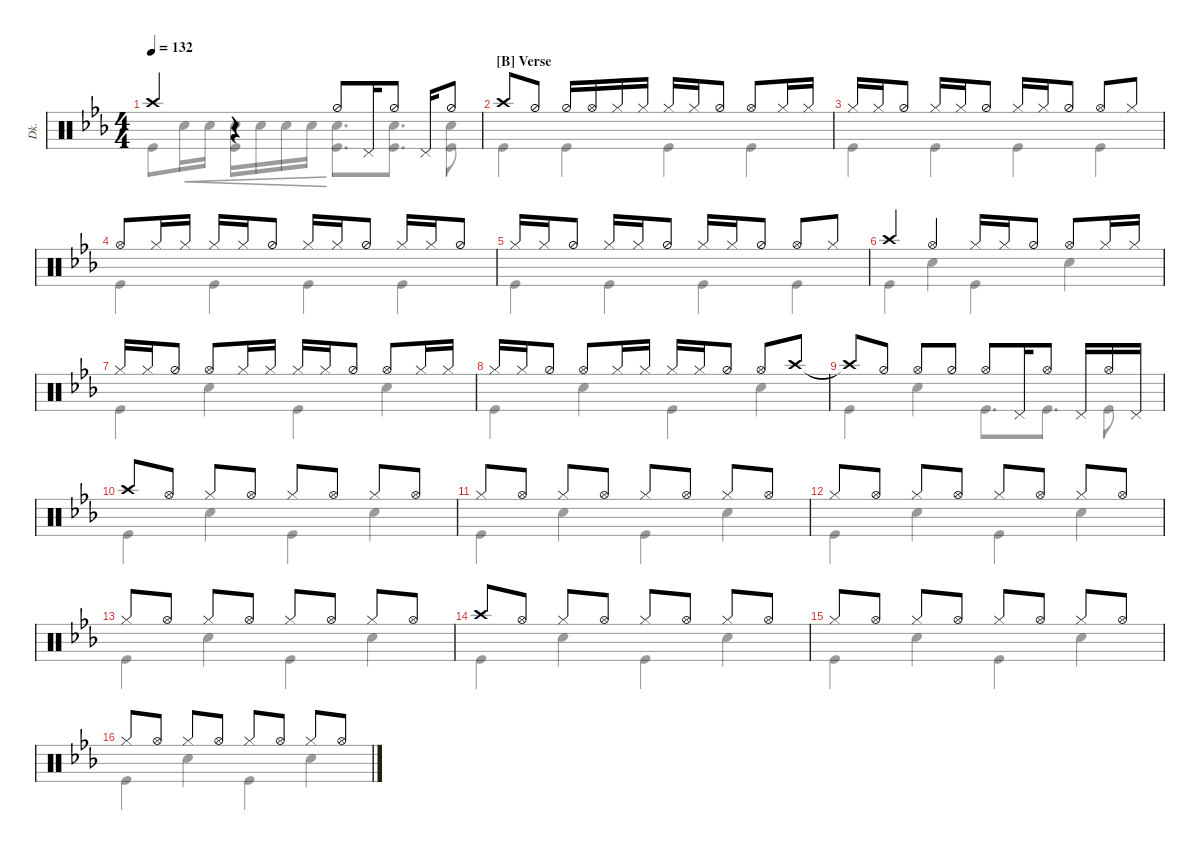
\defaultSystemsLayout 4
\hideDynamics
\bracketExtendMode nobrackets
\otherSystemsTrackNameOrientation horizontal
\track ("Drumkit" "Dk.") {instrument percussion}
\staff {score}
\articulation defaults
\voice
\ts (4 4)
\tempo 132
\clef neutral
\ks eb "Crash high (hit)".4{dy f}
r.4 "Hi-Hat (half)".8 "Pedal Hi-Hat (hit)".16 "Hi-Hat (half)".8 "Pedal Hi-Hat (hit)".16 "Hi-Hat (half)".8 |
\section ("B" "Verse")
"Crash high (hit)".8 "Hi-Hat (half)".8{dy mf} "Hi-Hat (half)".16 "Hi-Hat (open)".16 "Hi-Hat (closed)".16 "Hi-Hat (closed)".16 "Hi-Hat (closed)".16 "Hi-Hat (closed)".16 "Hi-Hat (half)".8 "Hi-Hat (open)".8 "Hi-Hat (closed)".16 "Hi-Hat (closed)".16 |
"Hi-Hat (closed)".16 "Hi-Hat (closed)".16 "Hi-Hat (half)".8 "Hi-Hat (closed)".16 "Hi-Hat (closed)".16 "Hi-Hat (half)".8 "Hi-Hat (closed)".16 "Hi-Hat (closed)".16 "Hi-Hat (half)".8 "Hi-Hat (open)".8 "Hi-Hat (closed)".8 |
"Hi-Hat (open)".8 "Hi-Hat (closed)".16 "Hi-Hat (closed)".16 "Hi-Hat (closed)".16 "Hi-Hat (closed)".16 "Hi-Hat (half)".8 "Hi-Hat (closed)".16 "Hi-Hat (closed)".16 "Hi-Hat (half)".8 "Hi-Hat (closed)".16 "Hi-Hat (closed)".16 "Hi-Hat (half)".8 |
"Hi-Hat (closed)".16 "Hi-Hat (closed)".16 "Hi-Hat (half)".8 "Hi-Hat (closed)".16 "Hi-Hat (closed)".16 "Hi-Hat (half)".8 "Hi-Hat (closed)".16 "Hi-Hat (closed)".16 "Hi-Hat (half)".8 "Hi-Hat (open)".8 "Hi-Hat (closed)".8 |
"Crash high (hit)".4{dy f} "Hi-Hat (open)".4 "Hi-Hat (closed)".16{dy mf} "Hi-Hat (closed)".16 "Hi-Hat (half)".8 "Hi-Hat (open)".8 "Hi-Hat (closed)".16 "Hi-Hat (closed)".16 |
"Hi-Hat (closed)".16 "Hi-Hat (closed)".16 "Hi-Hat (half)".8 "Hi-Hat (open)".8 "Hi-Hat (closed)".16 "Hi-Hat (closed)".16 "Hi-Hat (closed)".16 "Hi-Hat (closed)".16 "Hi-Hat (half)".8 "Hi-Hat (open)".8 "Hi-Hat (closed)".16 "Hi-Hat (closed)".16 |
"Hi-Hat (closed)".16 "Hi-Hat (closed)".16 "Hi-Hat (half)".8 "Hi-Hat (open)".8 "Hi-Hat (closed)".16 "Hi-Hat (closed)".16 "Hi-Hat (closed)".16 "Hi-Hat (closed)".16 "Hi-Hat (half)".8 "Hi-Hat (open)".8 "Crash high (hit)".8{dy f} |
"Crash high (hit)"{t}.8{dy mf} "Hi-Hat (half)".8 "Hi-Hat (open)".8 "Hi-Hat (half)".8 "Hi-Hat (open)".8 "Pedal Hi-Hat (hit)".16 "Hi-Hat (open)".8 "Pedal Hi-Hat (hit)".16 "Hi-Hat (open)".16 "Pedal Hi-Hat (hit)".16 |
"Crash high (hit)".8 "Hi-Hat (open)".8 "Hi-Hat (closed)".8 "Hi-Hat (open)".8 "Hi-Hat (closed)".8 "Hi-Hat (open)".8 "Hi-Hat (closed)".8 "Hi-Hat (open)".8 |
"Hi-Hat (closed)".8 "Hi-Hat (open)".8 "Hi-Hat (closed)".8 "Hi-Hat (open)".8 "Hi-Hat (closed)".8 "Hi-Hat (open)".8 "Hi-Hat (closed)".8 "Hi-Hat (open)".8 |
"Hi-Hat (closed)".8 "Hi-Hat (open)".8 "Hi-Hat (closed)".8 "Hi-Hat (open)".8 "Hi-Hat (closed)".8 "Hi-Hat (open)".8 "Hi-Hat (closed)".8 "Hi-Hat (open)".8 |
"Hi-Hat (closed)".8 "Hi-Hat (open)".8 "Hi-Hat (closed)".8 "Hi-Hat (open)".8 "Hi-Hat (closed)".8 "Hi-Hat (open)".8 "Hi-Hat (closed)".8 "Hi-Hat (open)".8 |
"Crash high (hit)".8 "Hi-Hat (open)".8 "Hi-Hat (closed)".8 "Hi-Hat (open)".8 "Hi-Hat (closed)".8 "Hi-Hat (open)".8 "Hi-Hat (closed)".8 "Hi-Hat (open)".8 |
"Hi-Hat (closed)".8 "Hi-Hat (open)".8 "Hi-Hat (closed)".8 "Hi-Hat (open)".8 "Hi-Hat (closed)".8 "Hi-Hat (open)".8 "Hi-Hat (closed)".8 "Hi-Hat (open)".8 |
"Hi-Hat (closed)".8 "Hi-Hat (open)".8 "Hi-Hat (closed)".8 "Hi-Hat (open)".8 "Hi-Hat (closed)".8 "Hi-Hat (open)".8 "Hi-Hat (closed)".8 "Hi-Hat (open)".8
\voice
\clef neutral
\ottava regular
\simile none
\ks eb "Kick (hit)".8{dy mf} "Snare (hit) 2".16{cre dy p} "Snare (hit) 2".16{cre}
("Snare (hit) 2" "Kick (hit)").16{cre} "Snare (hit) 2".16{cre} "Snare (hit) 2".16{cre} "Snare (hit) 2".16{cre} ("Kick (hit)" "Snare (hit) 2").8{d dy mf} ("Snare (hit) 2" "Kick (hit)").8{d} ("Kick (hit)" "Snare (hit) 2").8 |
"Kick (hit)".4 "Kick (hit)".4 "Kick (hit)".4 "Kick (hit)".4 |
"Kick (hit)".4 "Kick (hit)".4 "Kick (hit)".4 "Kick (hit)".4 |
"Kick (hit)".4 "Kick (hit)".4 "Kick (hit)".4 "Kick (hit)".4 |
"Kick (hit)".4 "Kick (hit)".4 "Kick (hit)".4 "Kick (hit)".4 |
"Kick (hit)".4 "Snare (hit) 2".4 "Kick (hit)".4 "Snare (hit) 2".4 |
"Kick (hit)".4 "Snare (hit) 2".4 "Kick (hit)".4 "Snare (hit) 2".4 |
"Kick (hit)".4 "Snare (hit) 2".4 "Kick (hit)".4 "Snare (hit) 2".4 |
"Kick (hit)".4 "Snare (hit) 2".4 "Kick (hit)".8{d} "Kick (hit)".8{d} "Kick (hit)".8 |
"Kick (hit)".4 "Snare (hit) 2".4 "Kick (hit)".4 "Snare (hit) 2".4 |
"Kick (hit)".4 "Snare (hit) 2".4 "Kick (hit)".4 "Snare (hit) 2".4 |
"Kick (hit)".4 "Snare (hit) 2".4 "Kick (hit)".4 "Snare (hit) 2".4 |
"Kick (hit)".4 "Snare (hit) 2".4 "Kick (hit)".4 "Snare (hit) 2".4 |
"Kick (hit)".4 "Snare (hit) 2".4 "Kick (hit)".4 "Snare (hit) 2".4 |
"Kick (hit)".4 "Snare (hit) 2".4 "Kick (hit)".4 "Snare (hit) 2".4 |
"Kick (hit)".4 "Snare (hit) 2".4 "Kick (hit)".4 "Snare (hit) 2".4
